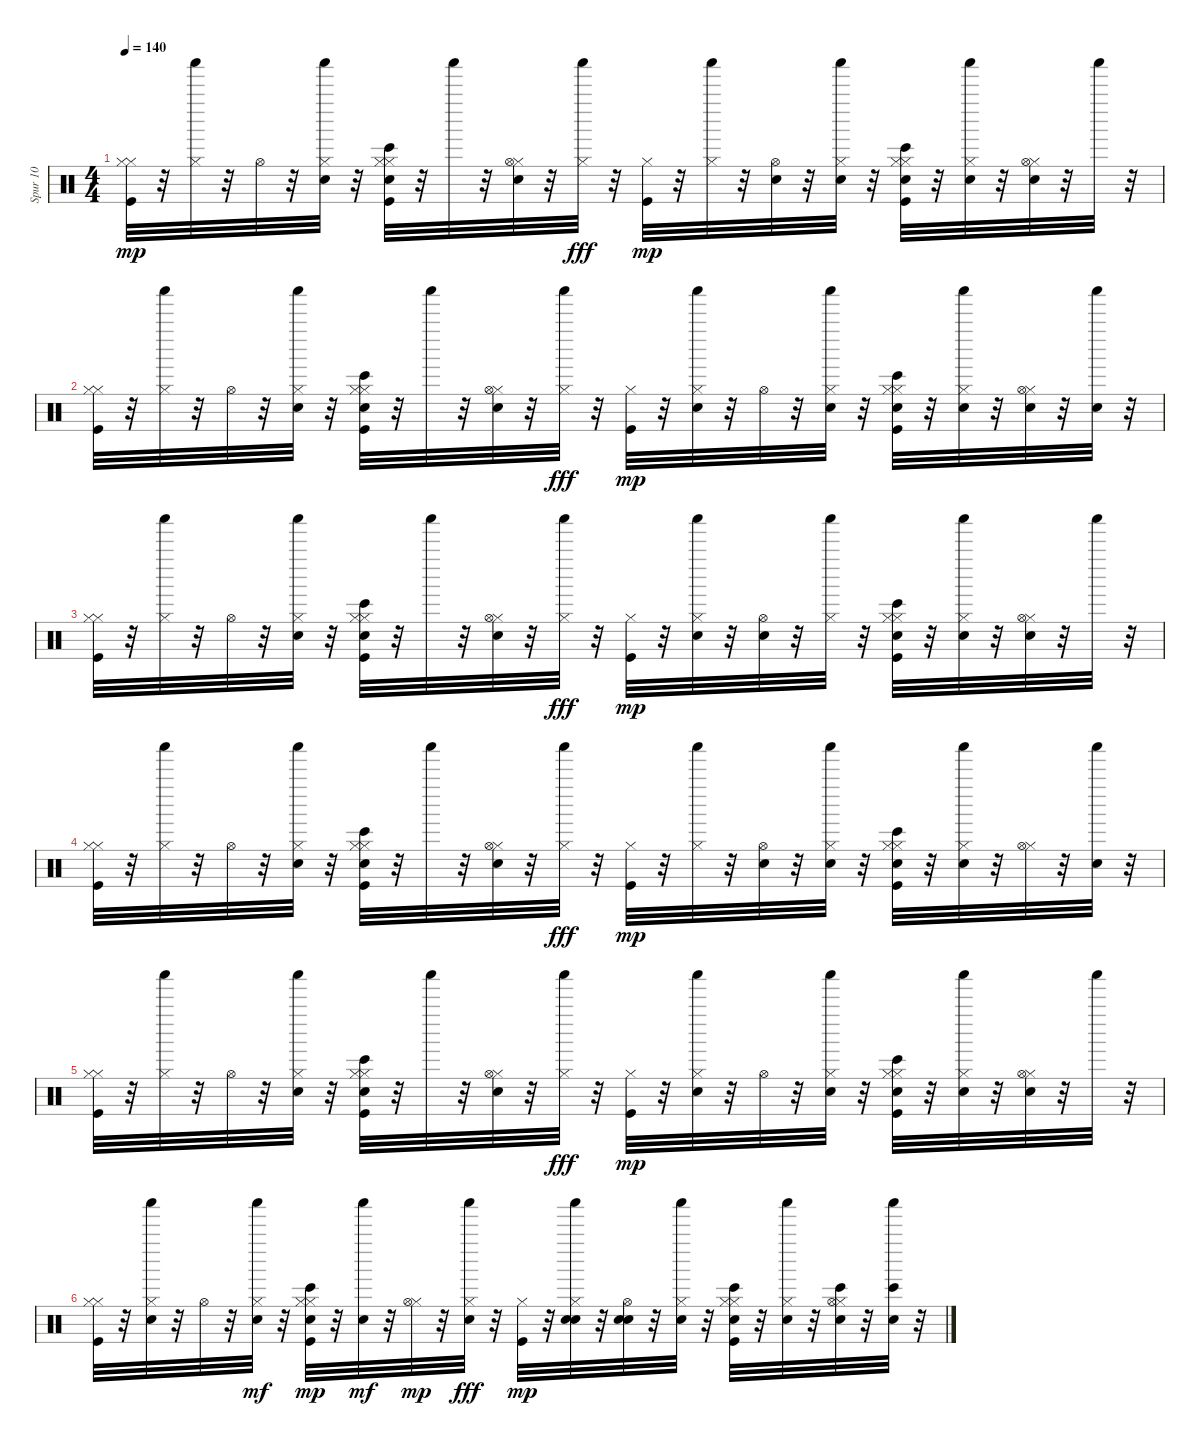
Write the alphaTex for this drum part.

\track ("Spur 10" "Spur 10") {instrument percussion}
\staff {score}
\articulation defaults
\ts (4 4)
\tempo 140
\clef neutral
\ks c
("Hi-Hat (closed)" "Kick (hit)" "Hi-Hat (closed)").32{dy mp} r.32 ("Hi-Hat (closed)" "Shaker (hit)").32 r.32 "Hi-Hat (open)".32 r.32 ("Shaker (hit)" "Snare (hit) 2" "Hi-Hat (closed)").32 r.32 ("Hi-Hat (closed)" "Kick (hit)" "Bongo High (hit)" "Electric Snare (hit)" "Hi-Hat (closed)").32 r.32 "Shaker (hit)".32 r.32 ("Snare (hit) 2" "Hi-Hat (closed)" "Hi-Hat (open)").32 r.32 ("Shaker (hit)" "Hi-Hat (closed)").32{dy fff} r.32 ("Kick (hit)" "Hi-Hat (closed)").32{dy mp} r.32 ("Hi-Hat (closed)" "Shaker (hit)").32 r.32 ("Snare (hit) 2" "Hi-Hat (open)").32 r.32 ("Snare (hit) 2" "Shaker (hit)" "Hi-Hat (closed)").32 r.32 ("Hi-Hat (closed)" "Kick (hit)" "Bongo High (hit)" "Electric Snare (hit)" "Hi-Hat (closed)").32 r.32 ("Snare (hit) 2" "Hi-Hat (closed)" "Shaker (hit)").32 r.32 ("Snare (hit) 2" "Hi-Hat (closed)" "Hi-Hat (open)").32 r.32 "Shaker (hit)".32 r.32 |
("Hi-Hat (closed)" "Kick (hit)" "Hi-Hat (closed)").32 r.32 ("Hi-Hat (closed)" "Shaker (hit)").32 r.32 "Hi-Hat (open)".32 r.32 ("Shaker (hit)" "Snare (hit) 2" "Hi-Hat (closed)").32 r.32 ("Hi-Hat (closed)" "Kick (hit)" "Bongo High (hit)" "Electric Snare (hit)" "Hi-Hat (closed)").32 r.32 "Shaker (hit)".32 r.32 ("Snare (hit) 2" "Hi-Hat (closed)" "Hi-Hat (open)").32 r.32 ("Shaker (hit)" "Hi-Hat (closed)").32{dy fff} r.32 ("Kick (hit)" "Hi-Hat (closed)").32{dy mp} r.32 ("Snare (hit) 2" "Hi-Hat (closed)" "Shaker (hit)").32 r.32 "Hi-Hat (open)".32 r.32 ("Snare (hit) 2" "Shaker (hit)" "Hi-Hat (closed)").32 r.32 ("Hi-Hat (closed)" "Kick (hit)" "Bongo High (hit)" "Electric Snare (hit)" "Hi-Hat (closed)").32 r.32 ("Snare (hit) 2" "Hi-Hat (closed)" "Shaker (hit)").32 r.32 ("Snare (hit) 2" "Hi-Hat (closed)" "Hi-Hat (open)").32 r.32 ("Snare (hit) 2" "Shaker (hit)").32 r.32 |
("Hi-Hat (closed)" "Kick (hit)" "Hi-Hat (closed)").32 r.32 ("Hi-Hat (closed)" "Shaker (hit)").32 r.32 "Hi-Hat (open)".32 r.32 ("Shaker (hit)" "Snare (hit) 2" "Hi-Hat (closed)").32 r.32 ("Hi-Hat (closed)" "Kick (hit)" "Bongo High (hit)" "Electric Snare (hit)" "Hi-Hat (closed)").32 r.32 "Shaker (hit)".32 r.32 ("Snare (hit) 2" "Hi-Hat (closed)" "Hi-Hat (open)").32 r.32 ("Shaker (hit)" "Hi-Hat (closed)").32{dy fff} r.32 ("Kick (hit)" "Hi-Hat (closed)").32{dy mp} r.32 ("Snare (hit) 2" "Hi-Hat (closed)" "Shaker (hit)").32 r.32 ("Snare (hit) 2" "Hi-Hat (open)").32 r.32 ("Shaker (hit)" "Hi-Hat (closed)").32 r.32 ("Hi-Hat (closed)" "Kick (hit)" "Bongo High (hit)" "Electric Snare (hit)" "Hi-Hat (closed)").32 r.32 ("Snare (hit) 2" "Hi-Hat (closed)" "Shaker (hit)").32 r.32 ("Snare (hit) 2" "Hi-Hat (closed)" "Hi-Hat (open)").32 r.32 "Shaker (hit)".32 r.32 |
("Hi-Hat (closed)" "Kick (hit)" "Hi-Hat (closed)").32 r.32 ("Hi-Hat (closed)" "Shaker (hit)").32 r.32 "Hi-Hat (open)".32 r.32 ("Shaker (hit)" "Snare (hit) 2" "Hi-Hat (closed)").32 r.32 ("Hi-Hat (closed)" "Kick (hit)" "Bongo High (hit)" "Electric Snare (hit)" "Hi-Hat (closed)").32 r.32 "Shaker (hit)".32 r.32 ("Snare (hit) 2" "Hi-Hat (closed)" "Hi-Hat (open)").32 r.32 ("Shaker (hit)" "Hi-Hat (closed)").32{dy fff} r.32 ("Kick (hit)" "Hi-Hat (closed)").32{dy mp} r.32 ("Hi-Hat (closed)" "Shaker (hit)").32 r.32 ("Snare (hit) 2" "Hi-Hat (open)").32 r.32 ("Snare (hit) 2" "Shaker (hit)" "Hi-Hat (closed)").32 r.32 ("Hi-Hat (closed)" "Kick (hit)" "Bongo High (hit)" "Electric Snare (hit)" "Hi-Hat (closed)").32 r.32 ("Snare (hit) 2" "Hi-Hat (closed)" "Shaker (hit)").32 r.32 ("Hi-Hat (closed)" "Hi-Hat (open)").32 r.32 ("Snare (hit) 2" "Shaker (hit)").32 r.32 |
("Hi-Hat (closed)" "Kick (hit)" "Hi-Hat (closed)").32 r.32 ("Hi-Hat (closed)" "Shaker (hit)").32 r.32 "Hi-Hat (open)".32 r.32 ("Shaker (hit)" "Snare (hit) 2" "Hi-Hat (closed)").32 r.32 ("Hi-Hat (closed)" "Kick (hit)" "Bongo High (hit)" "Electric Snare (hit)" "Hi-Hat (closed)").32 r.32 "Shaker (hit)".32 r.32 ("Snare (hit) 2" "Hi-Hat (closed)" "Hi-Hat (open)").32 r.32 ("Shaker (hit)" "Hi-Hat (closed)").32{dy fff} r.32 ("Kick (hit)" "Hi-Hat (closed)").32{dy mp} r.32 ("Snare (hit) 2" "Hi-Hat (closed)" "Shaker (hit)").32 r.32 "Hi-Hat (open)".32 r.32 ("Snare (hit) 2" "Shaker (hit)" "Hi-Hat (closed)").32 r.32 ("Hi-Hat (closed)" "Kick (hit)" "Bongo High (hit)" "Electric Snare (hit)" "Hi-Hat (closed)").32 r.32 ("Snare (hit) 2" "Hi-Hat (closed)" "Shaker (hit)").32 r.32 ("Snare (hit) 2" "Hi-Hat (closed)" "Hi-Hat (open)").32 r.32 "Shaker (hit)".32 r.32 |
("Hi-Hat (closed)" "Kick (hit)" "Hi-Hat (closed)").32 r.32 ("Snare (hit) 2" "Hi-Hat (closed)" "Shaker (hit)").32 r.32 "Hi-Hat (open)".32 r.32 ("Shaker (hit)" "Hi-Hat (closed)" "Snare (hit) 2").32{dy mf} r.32 ("Hi-Hat (closed)" "Kick (hit)" "Bongo High (hit)" "Electric Snare (hit)" "Hi-Hat (closed)").32{dy mp} r.32 ("Shaker (hit)" "Snare (hit) 2").32{dy mf} r.32 ("Hi-Hat (closed)" "Hi-Hat (open)").32{dy mp} r.32 ("Snare (hit) 2" "Shaker (hit)" "Hi-Hat (closed)").32{dy fff} r.32 ("Kick (hit)" "Hi-Hat (closed)").32{dy mp} r.32 ("Electric Snare (hit)" "Snare (hit) 2" "Hi-Hat (closed)" "Shaker (hit)").32 r.32 ("Electric Snare (hit)" "Snare (hit) 2" "Hi-Hat (open)").32 r.32 ("Snare (hit) 2" "Shaker (hit)" "Hi-Hat (closed)").32 r.32 ("Hi-Hat (closed)" "Kick (hit)" "Bongo High (hit)" "Electric Snare (hit)" "Hi-Hat (closed)").32 r.32 ("Snare (hit) 2" "Hi-Hat (closed)" "Shaker (hit)").32 r.32 ("Bongo High (hit)" "Electric Snare (hit)" "Hi-Hat (closed)" "Hi-Hat (open)").32 r.32 ("Bongo High (hit)" "Electric Snare (hit)" "Shaker (hit)").32 r.32
